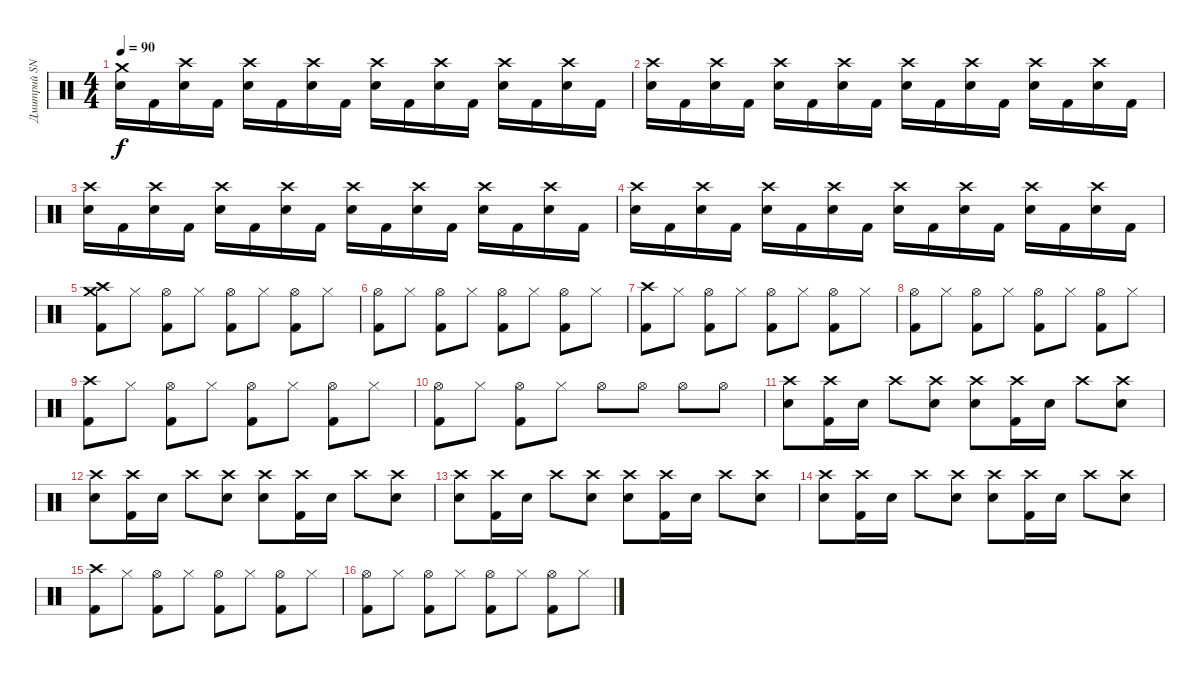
\track ("Дмитрий SNAKE Хакимов" "Дмитрий SN") {instrument percussion}
\staff {score}
\articulation defaults
\ts (4 4)
\tempo 90
\clef neutral
\ks c
("Crash medium (hit)" "Snare (hit) 2").16{dy f} "Kick (hit) 2".16 ("Crash high (hit)" "Snare (hit) 2").16 "Kick (hit) 2".16 ("Crash high (hit)" "Snare (hit) 2").16 "Kick (hit) 2".16 ("Crash high (hit)" "Snare (hit) 2").16 "Kick (hit) 2".16 ("Crash high (hit)" "Snare (hit) 2").16 "Kick (hit) 2".16 ("Crash high (hit)" "Snare (hit) 2").16 "Kick (hit) 2".16 ("Crash high (hit)" "Snare (hit) 2").16 "Kick (hit) 2".16 ("Crash high (hit)" "Snare (hit) 2").16 "Kick (hit) 2".16 |
("Crash high (hit)" "Snare (hit) 2").16 "Kick (hit) 2".16 ("Crash high (hit)" "Snare (hit) 2").16 "Kick (hit) 2".16 ("Crash high (hit)" "Snare (hit) 2").16 "Kick (hit) 2".16 ("Crash high (hit)" "Snare (hit) 2").16 "Kick (hit) 2".16 ("Crash high (hit)" "Snare (hit) 2").16 "Kick (hit) 2".16 ("Crash high (hit)" "Snare (hit) 2").16 "Kick (hit) 2".16 ("Crash high (hit)" "Snare (hit) 2").16 "Kick (hit) 2".16 ("Crash high (hit)" "Snare (hit) 2").16 "Kick (hit) 2".16 |
("Crash high (hit)" "Snare (hit) 2").16 "Kick (hit) 2".16 ("Crash high (hit)" "Snare (hit) 2").16 "Kick (hit) 2".16 ("Crash high (hit)" "Snare (hit) 2").16 "Kick (hit) 2".16 ("Crash high (hit)" "Snare (hit) 2").16 "Kick (hit) 2".16 ("Crash high (hit)" "Snare (hit) 2").16 "Kick (hit) 2".16 ("Crash high (hit)" "Snare (hit) 2").16 "Kick (hit) 2".16 ("Crash high (hit)" "Snare (hit) 2").16 "Kick (hit) 2".16 ("Crash high (hit)" "Snare (hit) 2").16 "Kick (hit) 2".16 |
("Crash high (hit)" "Snare (hit) 2").16 "Kick (hit) 2".16 ("Crash high (hit)" "Snare (hit) 2").16 "Kick (hit) 2".16 ("Crash high (hit)" "Snare (hit) 2").16 "Kick (hit) 2".16 ("Crash high (hit)" "Snare (hit) 2").16 "Kick (hit) 2".16 ("Crash high (hit)" "Snare (hit) 2").16 "Kick (hit) 2".16 ("Crash high (hit)" "Snare (hit) 2").16 "Kick (hit) 2".16 ("Crash high (hit)" "Snare (hit) 2").16 "Kick (hit) 2".16 ("Crash high (hit)" "Snare (hit) 2").16 "Kick (hit) 2".16 |
("Crash high (hit)" "Crash medium (hit)" "Kick (hit) 2").8 "Hi-Hat (closed)".8 ("Hi-Hat (open)" "Kick (hit) 2").8 "Hi-Hat (closed)".8 ("Hi-Hat (open)" "Kick (hit) 2").8 "Hi-Hat (closed)".8 ("Hi-Hat (open)" "Kick (hit) 2").8 "Hi-Hat (closed)".8 |
("Hi-Hat (open)" "Kick (hit) 2").8 "Hi-Hat (closed)".8 ("Hi-Hat (open)" "Kick (hit) 2").8 "Hi-Hat (closed)".8 ("Hi-Hat (open)" "Kick (hit) 2").8 "Hi-Hat (closed)".8 ("Hi-Hat (open)" "Kick (hit) 2").8 "Hi-Hat (closed)".8 |
("Crash high (hit)" "Kick (hit) 2").8 "Hi-Hat (closed)".8 ("Hi-Hat (open)" "Kick (hit) 2").8 "Hi-Hat (closed)".8 ("Hi-Hat (open)" "Kick (hit) 2").8 "Hi-Hat (closed)".8 ("Hi-Hat (open)" "Kick (hit) 2").8 "Hi-Hat (closed)".8 |
("Hi-Hat (open)" "Kick (hit) 2").8 "Hi-Hat (closed)".8 ("Hi-Hat (open)" "Kick (hit) 2").8 "Hi-Hat (closed)".8 ("Hi-Hat (open)" "Kick (hit) 2").8 "Hi-Hat (closed)".8 ("Hi-Hat (open)" "Kick (hit) 2").8 "Hi-Hat (closed)".8 |
("Crash high (hit)" "Kick (hit) 2").8 "Hi-Hat (closed)".8 ("Hi-Hat (open)" "Kick (hit) 2").8 "Hi-Hat (closed)".8 ("Hi-Hat (open)" "Kick (hit) 2").8 "Hi-Hat (closed)".8 ("Hi-Hat (open)" "Kick (hit) 2").8 "Hi-Hat (closed)".8 |
("Hi-Hat (open)" "Kick (hit) 2").8 "Hi-Hat (closed)".8 ("Hi-Hat (open)" "Kick (hit) 2").8 "Hi-Hat (closed)".8 "Hi-Hat (open)".8 "Hi-Hat (open)".8 "Hi-Hat (open)".8 "Hi-Hat (open)".8 |
("Crash high (hit)" "Snare (hit) 2").8 ("Crash high (hit)" "Kick (hit) 2").16 "Snare (hit) 2".16 "Crash high (hit)".8 ("Crash high (hit)" "Snare (hit) 2").8 ("Crash high (hit)" "Snare (hit) 2").8 ("Crash high (hit)" "Kick (hit) 2").16 "Snare (hit) 2".16 "Crash high (hit)".8 ("Crash high (hit)" "Snare (hit) 2").8 |
("Crash high (hit)" "Snare (hit) 2").8 ("Crash high (hit)" "Kick (hit) 2").16 "Snare (hit) 2".16 "Crash high (hit)".8 ("Crash high (hit)" "Snare (hit) 2").8 ("Crash high (hit)" "Snare (hit) 2").8 ("Crash high (hit)" "Kick (hit) 2").16 "Snare (hit) 2".16 "Crash high (hit)".8 ("Crash high (hit)" "Snare (hit) 2").8 |
("Crash high (hit)" "Snare (hit) 2").8 ("Crash high (hit)" "Kick (hit) 2").16 "Snare (hit) 2".16 "Crash high (hit)".8 ("Crash high (hit)" "Snare (hit) 2").8 ("Crash high (hit)" "Snare (hit) 2").8 ("Crash high (hit)" "Kick (hit) 2").16 "Snare (hit) 2".16 "Crash high (hit)".8 ("Crash high (hit)" "Snare (hit) 2").8 |
("Crash high (hit)" "Snare (hit) 2").8 ("Crash high (hit)" "Kick (hit) 2").16 "Snare (hit) 2".16 "Crash high (hit)".8 ("Crash high (hit)" "Snare (hit) 2").8 ("Crash high (hit)" "Snare (hit) 2").8 ("Crash high (hit)" "Kick (hit) 2").16 "Snare (hit) 2".16 "Crash high (hit)".8 ("Crash high (hit)" "Snare (hit) 2").8 |
("Crash high (hit)" "Kick (hit) 2").8 "Hi-Hat (closed)".8 ("Hi-Hat (open)" "Kick (hit) 2").8 "Hi-Hat (closed)".8 ("Hi-Hat (open)" "Kick (hit) 2").8 "Hi-Hat (closed)".8 ("Hi-Hat (open)" "Kick (hit) 2").8 "Hi-Hat (closed)".8 |
("Hi-Hat (open)" "Kick (hit) 2").8 "Hi-Hat (closed)".8 ("Hi-Hat (open)" "Kick (hit) 2").8 "Hi-Hat (closed)".8 ("Hi-Hat (open)" "Kick (hit) 2").8 "Hi-Hat (closed)".8 ("Hi-Hat (open)" "Kick (hit) 2").8 "Hi-Hat (closed)".8
